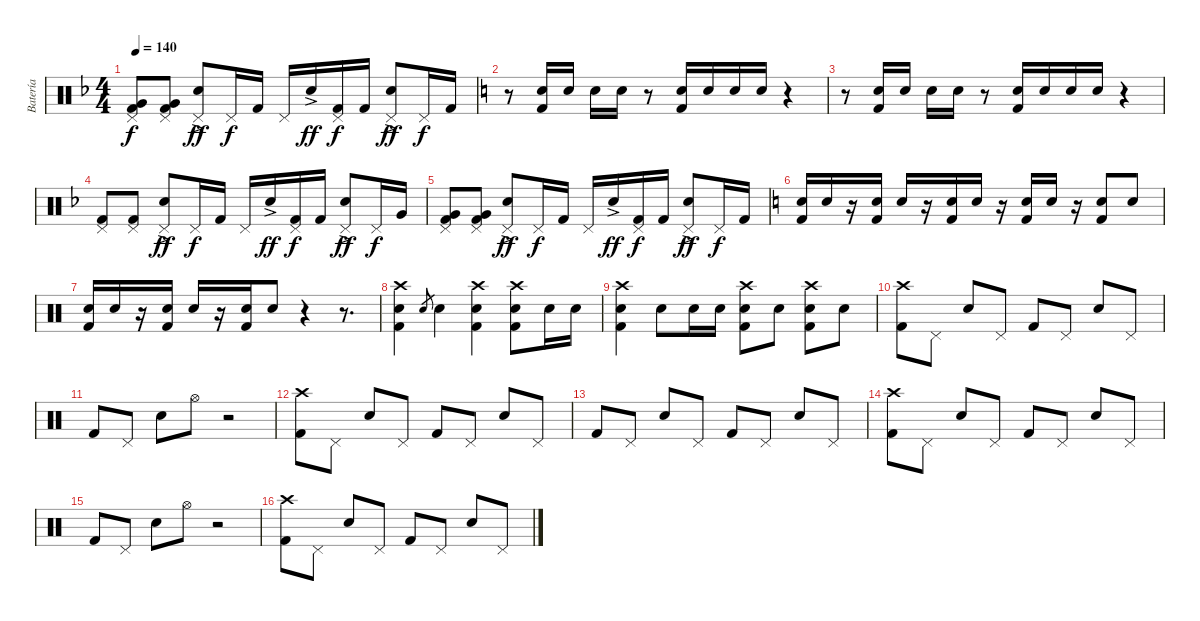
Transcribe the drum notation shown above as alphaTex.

\track ("Batería" "Batería") {instrument percussion}
\staff {score}
\articulation defaults
\ts (4 4)
\tempo 140
\clef neutral
\ks f
("Pedal Hi-Hat (hit)" "Very Low Tom (hit)" "Kick (hit) 2").8{dy f} ("Pedal Hi-Hat (hit)" "Very Low Tom (hit)" "Kick (hit) 2").8 ("Pedal Hi-Hat (hit)" "Electric Snare (hit)"{ac}).8{dy ff} "Pedal Hi-Hat (hit)".16{dy f} "Kick (hit) 2".16 "Pedal Hi-Hat (hit)".16 "Electric Snare (hit)"{ac}.16{dy ff} ("Pedal Hi-Hat (hit)" "Kick (hit) 2").16{dy f} "Kick (hit) 2".16 ("Pedal Hi-Hat (hit)" "Electric Snare (hit)"{ac}).8{dy ff} "Pedal Hi-Hat (hit)".16{dy f} "Kick (hit) 2".16 |
\ks c
r.8 ("Snare (hit) 2" "Kick (hit) 2").16 "Snare (hit) 2".16 "Snare (hit) 2".16 "Snare (hit) 2".16 r.8 ("Snare (hit) 2" "Kick (hit) 2").16 "Snare (hit) 2".16 "Snare (hit) 2".16 "Snare (hit) 2".16 r.4 |
r.8 ("Snare (hit) 2" "Kick (hit) 2").16 "Snare (hit) 2".16 "Snare (hit) 2".16 "Snare (hit) 2".16 r.8 ("Snare (hit) 2" "Kick (hit) 2").16 "Snare (hit) 2".16 "Snare (hit) 2".16 "Snare (hit) 2".16 r.4 |
\ks f
("Pedal Hi-Hat (hit)" "Kick (hit) 2").8 ("Pedal Hi-Hat (hit)" "Kick (hit) 2").8 ("Pedal Hi-Hat (hit)" "Electric Snare (hit)"{ac}).8{dy ff} "Pedal Hi-Hat (hit)".16{dy f} "Kick (hit) 2".16 "Pedal Hi-Hat (hit)".16 "Electric Snare (hit)"{ac}.16{dy ff} ("Pedal Hi-Hat (hit)" "Kick (hit) 2").16{dy f} "Kick (hit) 2".16 ("Pedal Hi-Hat (hit)" "Electric Snare (hit)"{ac}).8{dy ff} "Pedal Hi-Hat (hit)".16{dy f} "Very Low Tom (hit)".16 |
("Pedal Hi-Hat (hit)" "Very Low Tom (hit)" "Kick (hit) 2").8 ("Pedal Hi-Hat (hit)" "Very Low Tom (hit)" "Kick (hit) 2").8 ("Pedal Hi-Hat (hit)" "Electric Snare (hit)"{ac}).8{dy ff} "Pedal Hi-Hat (hit)".16{dy f} "Kick (hit) 2".16 "Pedal Hi-Hat (hit)".16 "Electric Snare (hit)"{ac}.16{dy ff} ("Pedal Hi-Hat (hit)" "Kick (hit) 2").16{dy f} "Kick (hit) 2".16 ("Pedal Hi-Hat (hit)" "Electric Snare (hit)"{ac}).8{dy ff} "Pedal Hi-Hat (hit)".16{dy f} "Kick (hit) 2".16 |
\ks c
("Snare (hit) 2" "Kick (hit) 2").16 "Snare (hit) 2".16 r.16 ("Snare (hit) 2" "Kick (hit) 2").16 "Snare (hit) 2".16 r.16 ("Snare (hit) 2" "Kick (hit) 2").16 "Snare (hit) 2".16 r.16 ("Snare (hit) 2" "Kick (hit) 2").16 "Snare (hit) 2".16 r.16 ("Snare (hit) 2" "Kick (hit) 2").8 "Snare (hit) 2".8 |
("Snare (hit) 2" "Kick (hit) 2").16 "Snare (hit) 2".16 r.16 ("Snare (hit) 2" "Kick (hit) 2").16 "Snare (hit) 2".16 r.16 ("Snare (hit) 2" "Kick (hit) 2").16 "Snare (hit) 2".8 r.4 r.8{d} |
("Crash high (hit)" "Snare (hit) 2" "Kick (hit) 2").4 "Snare (hit) 2".8{gr} "Snare (hit) 2".4 ("Crash high (hit)" "Snare (hit) 2" "Kick (hit) 2").4 ("Crash high (hit)" "Snare (hit) 2" "Kick (hit) 2").8 "Snare (hit) 2".16 "Snare (hit) 2".16 |
("Crash high (hit)" "Snare (hit) 2" "Kick (hit) 2").4 "Snare (hit) 2".8 "Snare (hit) 2".16 "Snare (hit) 2".16 ("Crash high (hit)" "Snare (hit) 2" "Kick (hit) 2").8 "Snare (hit) 2".8 ("Crash high (hit)" "Snare (hit) 2" "Kick (hit) 2").8 "Snare (hit) 2".8 |
("Crash high (hit)" "Kick (hit) 2").8 "Pedal Hi-Hat (hit)".8 "Snare (hit) 2".8 "Pedal Hi-Hat (hit)".8 "Kick (hit) 2".8 "Pedal Hi-Hat (hit)".8 "Snare (hit) 2".8 "Pedal Hi-Hat (hit)".8 |
"Kick (hit) 2".8 "Pedal Hi-Hat (hit)".8 "Snare (hit) 2".8 "Hi-Hat (open)".8 r.2 |
("Crash high (hit)" "Kick (hit) 2").8 "Pedal Hi-Hat (hit)".8 "Snare (hit) 2".8 "Pedal Hi-Hat (hit)".8 "Kick (hit) 2".8 "Pedal Hi-Hat (hit)".8 "Snare (hit) 2".8 "Pedal Hi-Hat (hit)".8 |
"Kick (hit) 2".8 "Pedal Hi-Hat (hit)".8 "Snare (hit) 2".8 "Pedal Hi-Hat (hit)".8 "Kick (hit) 2".8 "Pedal Hi-Hat (hit)".8 "Snare (hit) 2".8 "Pedal Hi-Hat (hit)".8 |
("Crash high (hit)" "Kick (hit) 2").8 "Pedal Hi-Hat (hit)".8 "Snare (hit) 2".8 "Pedal Hi-Hat (hit)".8 "Kick (hit) 2".8 "Pedal Hi-Hat (hit)".8 "Snare (hit) 2".8 "Pedal Hi-Hat (hit)".8 |
"Kick (hit) 2".8 "Pedal Hi-Hat (hit)".8 "Snare (hit) 2".8 "Hi-Hat (open)".8 r.2 |
("Crash high (hit)" "Kick (hit) 2").8 "Pedal Hi-Hat (hit)".8 "Snare (hit) 2".8 "Pedal Hi-Hat (hit)".8 "Kick (hit) 2".8 "Pedal Hi-Hat (hit)".8 "Snare (hit) 2".8 "Pedal Hi-Hat (hit)".8
